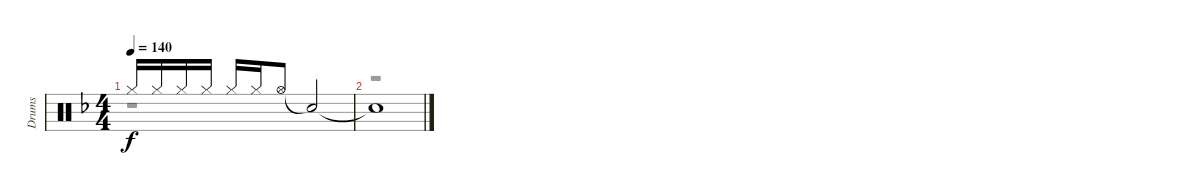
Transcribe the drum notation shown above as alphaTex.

\track ("Drums" "Drums") {instrument percussion}
\staff {score}
\articulation defaults
\voice
\ts (4 4)
\tempo 140
\clef neutral
\ks f "Hi-Hat (closed)".16{dy f} "Hi-Hat (closed)".16 "Hi-Hat (closed)".16 "Hi-Hat (closed)".16 "Hi-Hat (closed)".16 "Hi-Hat (closed)".16 "Hi-Hat (open)".8 "Snare (hit)"{t}.2
|
"Snare (hit)"{t}.1
\voice
\clef neutral
\ottava regular
\simile none
\ks f
r.1{dy fff} |
r.1
